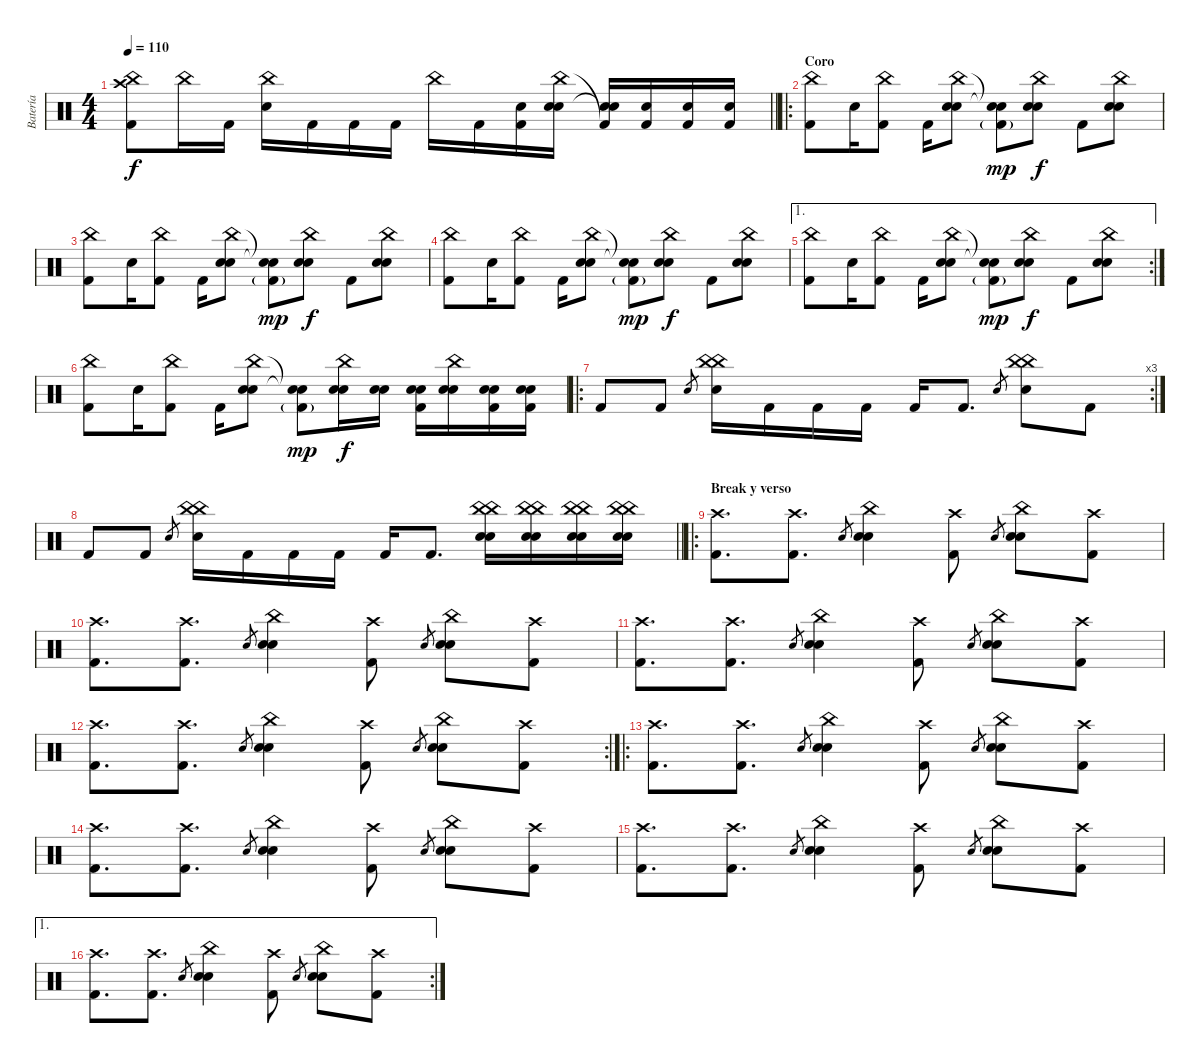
\track ("Batería" "Batería") {instrument percussion}
\staff {score}
\articulation defaults
\ts (4 4)
\tempo 110
\clef neutral
\barLineRight lightlight
\ks c
("Crash high (hit)" "China (hit)" "Kick (hit) 2").8{dy f} "China (hit)".16 "Kick (hit) 2".16 ("China (hit)" "Electric Snare (hit)").16 "Kick (hit) 2".16 "Kick (hit) 2".16 "Kick (hit) 2".16 "China (hit)".16 "Kick (hit) 2".16 ("Electric Snare (hit)" "Kick (hit) 2").16 ("Snare (hit) 2" "Electric Snare (hit)" "China (hit)").16 ("Electric Snare (hit)" "Snare (hit)"{t} "Kick (hit) 2"{t}).16 ("Electric Snare (hit)" "Kick (hit) 2").16 ("Electric Snare (hit)" "Kick (hit) 2").16 ("Electric Snare (hit)" "Kick (hit) 2").16 |
\ro
\section ("" "Coro")
("China (hit)" "Kick (hit) 2").8 "Electric Snare (hit)".16 ("China (hit)" "Kick (hit) 2").8 "Kick (hit) 2".16 ("China (hit)" "Snare (hit) 2" "Electric Snare (hit)").8 ("Snare (hit)"{t} "Snare (hit)"{t} "Kick (hit) 2"{g}).8{dy mp} ("China (hit)" "Snare (hit) 2" "Electric Snare (hit)").8{dy f} "Kick (hit) 2".8 ("China (hit)" "Snare (hit) 2" "Electric Snare (hit)").8 |
("China (hit)" "Kick (hit) 2").8 "Electric Snare (hit)".16 ("China (hit)" "Kick (hit) 2").8 "Kick (hit) 2".16 ("China (hit)" "Snare (hit) 2" "Electric Snare (hit)").8 ("Snare (hit)"{t} "Snare (hit)"{t} "Kick (hit) 2"{g}).8{dy mp} ("China (hit)" "Snare (hit) 2" "Electric Snare (hit)").8{dy f} "Kick (hit) 2".8 ("China (hit)" "Snare (hit) 2" "Electric Snare (hit)").8 |
("China (hit)" "Kick (hit) 2").8 "Electric Snare (hit)".16 ("China (hit)" "Kick (hit) 2").8 "Kick (hit) 2".16 ("China (hit)" "Snare (hit) 2" "Electric Snare (hit)").8 ("Snare (hit)"{t} "Snare (hit)"{t} "Kick (hit) 2"{g}).8{dy mp} ("China (hit)" "Snare (hit) 2" "Electric Snare (hit)").8{dy f} "Kick (hit) 2".8 ("China (hit)" "Snare (hit) 2" "Electric Snare (hit)").8 |
\ae 1
\rc 2
("China (hit)" "Kick (hit) 2").8 "Electric Snare (hit)".16 ("China (hit)" "Kick (hit) 2").8 "Kick (hit) 2".16 ("China (hit)" "Snare (hit) 2" "Electric Snare (hit)").8 ("Snare (hit)"{t} "Snare (hit)"{t} "Kick (hit) 2"{g}).8{dy mp} ("China (hit)" "Snare (hit) 2" "Electric Snare (hit)").8{dy f} "Kick (hit) 2".8 ("China (hit)" "Snare (hit) 2" "Electric Snare (hit)").8 |
("China (hit)" "Kick (hit) 2").8 "Electric Snare (hit)".16 ("China (hit)" "Kick (hit) 2").8 "Kick (hit) 2".16 ("China (hit)" "Snare (hit) 2" "Electric Snare (hit)").8 ("Snare (hit)"{t} "Snare (hit)"{t} "Kick (hit) 2"{g}).8{dy mp} ("China (hit)" "Snare (hit) 2" "Electric Snare (hit)").16{dy f} ("Snare (hit) 2" "Electric Snare (hit)").16 ("Snare (hit) 2" "Electric Snare (hit)" "Kick (hit) 2").16 ("China (hit)" "Snare (hit) 2" "Electric Snare (hit)").16 ("Snare (hit) 2" "Electric Snare (hit)" "Kick (hit) 2").16 ("Snare (hit) 2" "Electric Snare (hit)" "Kick (hit) 2").16 |
\ro
\rc 3 "Kick (hit) 2".8 "Kick (hit) 2".8 "Snare (hit) 2".8{gr}
("China (hit)" "China (hit)" "Electric Snare (hit)").16 "Kick (hit) 2".16 "Kick (hit) 2".16 "Kick (hit) 2".16 "Kick (hit) 2".16 "Kick (hit) 2".8{d} "Snare (hit) 2".8{gr} ("China (hit)" "China (hit)" "Electric Snare (hit)").8 "Kick (hit) 2".8 |
\barLineRight lightlight "Kick (hit) 2".8 "Kick (hit) 2".8 "Snare (hit) 2".8{gr}
("China (hit)" "China (hit)" "Electric Snare (hit)").16 "Kick (hit) 2".16 "Kick (hit) 2".16 "Kick (hit) 2".16 "Kick (hit) 2".16 "Kick (hit) 2".8{d} ("China (hit)" "China (hit)" "Electric Snare (hit)" "Snare (hit) 2").16 ("China (hit)" "China (hit)" "Electric Snare (hit)" "Snare (hit) 2").16 ("China (hit)" "China (hit)" "Electric Snare (hit)" "Snare (hit) 2").16 ("China (hit)" "China (hit)" "Electric Snare (hit)" "Snare (hit) 2").16 |
\ro
\section ("" "Break y verso")
("Crash high (hit)" "Kick (hit) 2").8{d} ("Crash high (hit)" "Kick (hit) 2").8{d} "Snare (hit) 2".8{gr} ("China (hit)" "Snare (hit) 2" "Electric Snare (hit)").4 ("Crash high (hit)" "Kick (hit) 2").8 "Snare (hit) 2".8{gr} ("China (hit)" "Snare (hit) 2" "Electric Snare (hit)").8 ("Crash high (hit)" "Kick (hit) 2").8 |
("Crash high (hit)" "Kick (hit) 2").8{d} ("Crash high (hit)" "Kick (hit) 2").8{d} "Snare (hit) 2".8{gr} ("China (hit)" "Snare (hit) 2" "Electric Snare (hit)").4 ("Crash high (hit)" "Kick (hit) 2").8 "Snare (hit) 2".8{gr} ("China (hit)" "Snare (hit) 2" "Electric Snare (hit)").8 ("Crash high (hit)" "Kick (hit) 2").8 |
("Crash high (hit)" "Kick (hit) 2").8{d} ("Crash high (hit)" "Kick (hit) 2").8{d} "Snare (hit) 2".8{gr} ("China (hit)" "Snare (hit) 2" "Electric Snare (hit)").4 ("Crash high (hit)" "Kick (hit) 2").8 "Snare (hit) 2".8{gr} ("China (hit)" "Snare (hit) 2" "Electric Snare (hit)").8 ("Crash high (hit)" "Kick (hit) 2").8 |
\rc 2
("Crash high (hit)" "Kick (hit) 2").8{d} ("Crash high (hit)" "Kick (hit) 2").8{d} "Snare (hit) 2".8{gr} ("China (hit)" "Snare (hit) 2" "Electric Snare (hit)").4 ("Crash high (hit)" "Kick (hit) 2").8 "Snare (hit) 2".8{gr} ("China (hit)" "Snare (hit) 2" "Electric Snare (hit)").8 ("Crash high (hit)" "Kick (hit) 2").8 |
\ro
("Crash high (hit)" "Kick (hit) 2").8{d} ("Crash high (hit)" "Kick (hit) 2").8{d} "Snare (hit) 2".8{gr} ("China (hit)" "Snare (hit) 2" "Electric Snare (hit)").4 ("Crash high (hit)" "Kick (hit) 2").8 "Snare (hit) 2".8{gr} ("China (hit)" "Snare (hit) 2" "Electric Snare (hit)").8 ("Crash high (hit)" "Kick (hit) 2").8 |
("Crash high (hit)" "Kick (hit) 2").8{d} ("Crash high (hit)" "Kick (hit) 2").8{d} "Snare (hit) 2".8{gr} ("China (hit)" "Snare (hit) 2" "Electric Snare (hit)").4 ("Crash high (hit)" "Kick (hit) 2").8 "Snare (hit) 2".8{gr} ("China (hit)" "Snare (hit) 2" "Electric Snare (hit)").8 ("Crash high (hit)" "Kick (hit) 2").8 |
("Crash high (hit)" "Kick (hit) 2").8{d} ("Crash high (hit)" "Kick (hit) 2").8{d} "Snare (hit) 2".8{gr} ("China (hit)" "Snare (hit) 2" "Electric Snare (hit)").4 ("Crash high (hit)" "Kick (hit) 2").8 "Snare (hit) 2".8{gr} ("China (hit)" "Snare (hit) 2" "Electric Snare (hit)").8 ("Crash high (hit)" "Kick (hit) 2").8 |
\ae 1
\rc 2
("Crash high (hit)" "Kick (hit) 2").8{d} ("Crash high (hit)" "Kick (hit) 2").8{d} "Snare (hit) 2".8{gr} ("China (hit)" "Snare (hit) 2" "Electric Snare (hit)").4 ("Crash high (hit)" "Kick (hit) 2").8 "Snare (hit) 2".8{gr} ("China (hit)" "Snare (hit) 2" "Electric Snare (hit)").8 ("Crash high (hit)" "Kick (hit) 2").8
